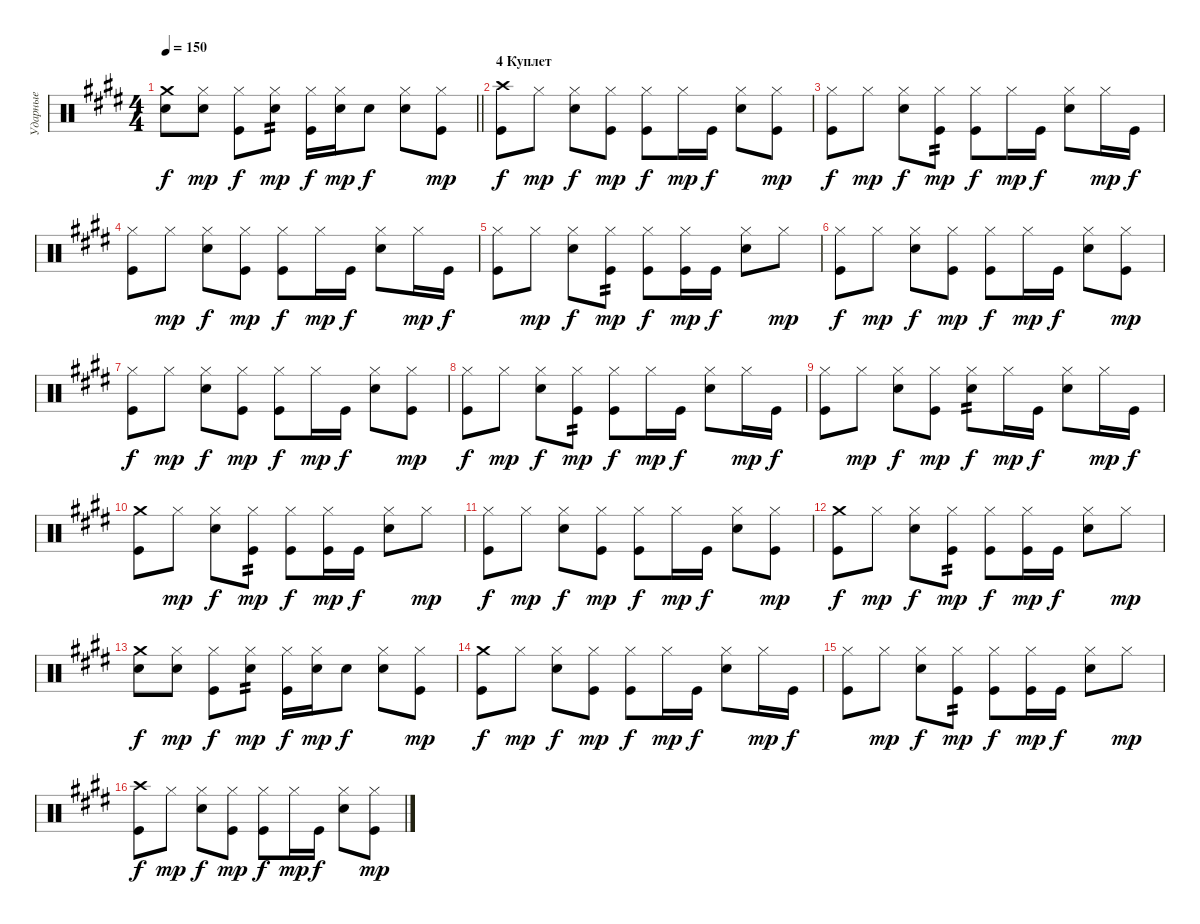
\track ("Ударные" "Ударные") {instrument percussion}
\staff {score}
\articulation defaults
\ts (4 4)
\tempo 150
\clef neutral
\barLineRight lightlight
\ks c#minor
("Crash medium (hit)" "Snare (hit) 2").8{dy f} ("Hi-Hat (closed)" "Snare (hit) 2").8{dy mp} ("Hi-Hat (closed)" "Kick (hit)").8{dy f} ("Hi-Hat (closed)" "Snare (hit) 2").8{tp 2 dy mp} ("Hi-Hat (closed)" "Kick (hit)").16{dy f} ("Hi-Hat (closed)" "Snare (hit) 2").16{dy mp} "Snare (hit) 2".8{dy f} ("Hi-Hat (closed)" "Snare (hit) 2").8 ("Hi-Hat (closed)" "Kick (hit)").8{dy mp} |
\section ("" "4 Куплет")
("Crash high (hit)" "Kick (hit)").8{dy f} "Hi-Hat (closed)".8{dy mp} ("Hi-Hat (closed)" "Snare (hit) 2").8{dy f} ("Hi-Hat (closed)" "Kick (hit)").8{dy mp} ("Hi-Hat (closed)" "Kick (hit)").8{dy f} "Hi-Hat (closed)".16{dy mp} "Kick (hit)".16{dy f} ("Hi-Hat (closed)" "Snare (hit) 2").8 ("Hi-Hat (closed)" "Kick (hit)").8{dy mp} |
("Hi-Hat (closed)" "Kick (hit)").8{dy f} "Hi-Hat (closed)".8{dy mp} ("Hi-Hat (closed)" "Snare (hit) 2").8{dy f} ("Hi-Hat (closed)" "Kick (hit)").8{tp 2 dy mp} ("Hi-Hat (closed)" "Kick (hit)").8{dy f} "Hi-Hat (closed)".16{dy mp} "Kick (hit)".16{dy f} ("Hi-Hat (closed)" "Snare (hit) 2").8 "Hi-Hat (closed)".16{dy mp} "Kick (hit)".16{dy f} |
("Hi-Hat (closed)" "Kick (hit)").8 "Hi-Hat (closed)".8{dy mp} ("Hi-Hat (closed)" "Snare (hit) 2").8{dy f} ("Hi-Hat (closed)" "Kick (hit)").8{dy mp} ("Hi-Hat (closed)" "Kick (hit)").8{dy f} "Hi-Hat (closed)".16{dy mp} "Kick (hit)".16{dy f} ("Hi-Hat (closed)" "Snare (hit) 2").8 "Hi-Hat (closed)".16{dy mp} "Kick (hit)".16{dy f} |
("Hi-Hat (closed)" "Kick (hit)").8 "Hi-Hat (closed)".8{dy mp} ("Hi-Hat (closed)" "Snare (hit) 2").8{dy f} ("Hi-Hat (closed)" "Kick (hit)").8{tp 2 dy mp} ("Hi-Hat (closed)" "Kick (hit)").8{dy f} ("Hi-Hat (closed)" "Kick (hit)").16{dy mp} "Kick (hit)".16{dy f} ("Hi-Hat (closed)" "Snare (hit) 2").8 "Hi-Hat (closed)".8{dy mp} |
("Hi-Hat (closed)" "Kick (hit)").8{dy f} "Hi-Hat (closed)".8{dy mp} ("Hi-Hat (closed)" "Snare (hit) 2").8{dy f} ("Hi-Hat (closed)" "Kick (hit)").8{dy mp} ("Hi-Hat (closed)" "Kick (hit)").8{dy f} "Hi-Hat (closed)".16{dy mp} "Kick (hit)".16{dy f} ("Hi-Hat (closed)" "Snare (hit) 2").8 ("Hi-Hat (closed)" "Kick (hit)").8{dy mp} |
("Hi-Hat (closed)" "Kick (hit)").8{dy f} "Hi-Hat (closed)".8{dy mp} ("Hi-Hat (closed)" "Snare (hit) 2").8{dy f} ("Hi-Hat (closed)" "Kick (hit)").8{dy mp} ("Hi-Hat (closed)" "Kick (hit)").8{dy f} "Hi-Hat (closed)".16{dy mp} "Kick (hit)".16{dy f} ("Hi-Hat (closed)" "Snare (hit) 2").8 ("Hi-Hat (closed)" "Kick (hit)").8{dy mp} |
("Hi-Hat (closed)" "Kick (hit)").8{dy f} "Hi-Hat (closed)".8{dy mp} ("Hi-Hat (closed)" "Snare (hit) 2").8{dy f} ("Hi-Hat (closed)" "Kick (hit)").8{tp 2 dy mp} ("Hi-Hat (closed)" "Kick (hit)").8{dy f} "Hi-Hat (closed)".16{dy mp} "Kick (hit)".16{dy f} ("Hi-Hat (closed)" "Snare (hit) 2").8 "Hi-Hat (closed)".16{dy mp} "Kick (hit)".16{dy f} |
("Hi-Hat (closed)" "Kick (hit)").8 "Hi-Hat (closed)".8{dy mp} ("Hi-Hat (closed)" "Snare (hit) 2").8{dy f} ("Hi-Hat (closed)" "Kick (hit)").8{dy mp} ("Hi-Hat (closed)" "Snare (hit) 2").8{tp 2 dy f} "Hi-Hat (closed)".16{dy mp} "Kick (hit)".16{dy f} ("Hi-Hat (closed)" "Snare (hit) 2").8 "Hi-Hat (closed)".16{dy mp} "Kick (hit)".16{dy f} |
("Crash medium (hit)" "Kick (hit)").8 "Hi-Hat (closed)".8{dy mp} ("Hi-Hat (closed)" "Snare (hit) 2").8{dy f} ("Hi-Hat (closed)" "Kick (hit)").8{tp 2 dy mp} ("Hi-Hat (closed)" "Kick (hit)").8{dy f} ("Hi-Hat (closed)" "Kick (hit)").16{dy mp} "Kick (hit)".16{dy f} ("Hi-Hat (closed)" "Snare (hit) 2").8 "Hi-Hat (closed)".8{dy mp} |
("Hi-Hat (closed)" "Kick (hit)").8{dy f} "Hi-Hat (closed)".8{dy mp} ("Hi-Hat (closed)" "Snare (hit) 2").8{dy f} ("Hi-Hat (closed)" "Kick (hit)").8{dy mp} ("Hi-Hat (closed)" "Kick (hit)").8{dy f} "Hi-Hat (closed)".16{dy mp} "Kick (hit)".16{dy f} ("Hi-Hat (closed)" "Snare (hit) 2").8 ("Hi-Hat (closed)" "Kick (hit)").8{dy mp} |
("Crash medium (hit)" "Kick (hit)").8{dy f} "Hi-Hat (closed)".8{dy mp} ("Hi-Hat (closed)" "Snare (hit) 2").8{dy f} ("Hi-Hat (closed)" "Kick (hit)").8{tp 2 dy mp} ("Hi-Hat (closed)" "Kick (hit)").8{dy f} ("Hi-Hat (closed)" "Kick (hit)").16{dy mp} "Kick (hit)".16{dy f} ("Hi-Hat (closed)" "Snare (hit) 2").8 "Hi-Hat (closed)".8{dy mp} |
("Crash medium (hit)" "Snare (hit) 2").8{dy f} ("Hi-Hat (closed)" "Snare (hit) 2").8{dy mp} ("Hi-Hat (closed)" "Kick (hit)").8{dy f} ("Hi-Hat (closed)" "Snare (hit) 2").8{tp 2 dy mp} ("Hi-Hat (closed)" "Kick (hit)").16{dy f} ("Hi-Hat (closed)" "Snare (hit) 2").16{dy mp} "Snare (hit) 2".8{dy f} ("Hi-Hat (closed)" "Snare (hit) 2").8 ("Hi-Hat (closed)" "Kick (hit)").8{dy mp} |
("Crash medium (hit)" "Kick (hit)").8{dy f} "Hi-Hat (closed)".8{dy mp} ("Hi-Hat (closed)" "Snare (hit) 2").8{dy f} ("Hi-Hat (closed)" "Kick (hit)").8{dy mp} ("Hi-Hat (closed)" "Kick (hit)").8{dy f} "Hi-Hat (closed)".16{dy mp} "Kick (hit)".16{dy f} ("Hi-Hat (closed)" "Snare (hit) 2").8 "Hi-Hat (closed)".16{dy mp} "Kick (hit)".16{dy f} |
("Hi-Hat (closed)" "Kick (hit)").8 "Hi-Hat (closed)".8{dy mp} ("Hi-Hat (closed)" "Snare (hit) 2").8{dy f} ("Hi-Hat (closed)" "Kick (hit)").8{tp 2 dy mp} ("Hi-Hat (closed)" "Kick (hit)").8{dy f} ("Hi-Hat (closed)" "Kick (hit)").16{dy mp} "Kick (hit)".16{dy f} ("Hi-Hat (closed)" "Snare (hit) 2").8 "Hi-Hat (closed)".8{dy mp} |
("Crash high (hit)" "Kick (hit)").8{dy f} "Hi-Hat (closed)".8{dy mp} ("Hi-Hat (closed)" "Snare (hit) 2").8{dy f} ("Hi-Hat (closed)" "Kick (hit)").8{dy mp} ("Hi-Hat (closed)" "Kick (hit)").8{dy f} "Hi-Hat (closed)".16{dy mp} "Kick (hit)".16{dy f} ("Hi-Hat (closed)" "Snare (hit) 2").8 ("Hi-Hat (closed)" "Kick (hit)").8{dy mp}
